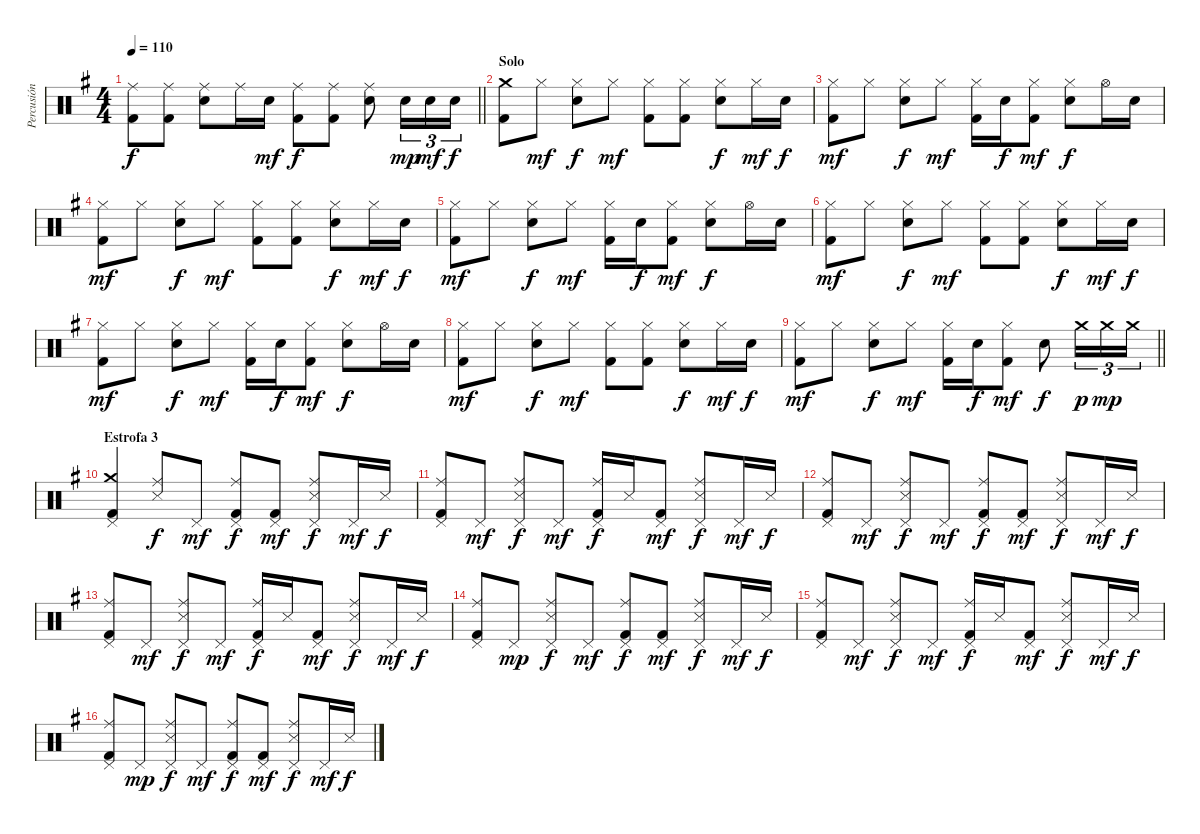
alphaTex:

\track ("Percusión" "Percusión") {instrument percussion}
\staff {score}
\articulation defaults
\ts (4 4)
\tempo 110
\clef neutral
\barLineRight lightlight
\ks g
("Ride (middle)" "Kick (hit) 2").8{dy f} ("Ride (middle)" "Kick (hit) 2").8 ("Ride (middle)" "Snare (hit) 2").8 "Ride (middle)".16 "Snare (hit) 2".16{dy mf} ("Ride (middle)" "Kick (hit) 2").8{dy f} ("Ride (middle)" "Kick (hit) 2").8 ("Ride (middle)" "Snare (hit) 2").8 "Snare (hit) 2".16{tu (3 2) dy mp} "Snare (hit) 2".16{tu (3 2) dy mf} "Snare (hit) 2".16{tu (3 2) dy f} |
\section ("" "Solo")
("Crash medium (hit)" "Kick (hit) 2").8 "Hi-Hat (closed)".8{dy mf} ("Hi-Hat (closed)" "Electric Snare (hit)").8{dy f} "Hi-Hat (closed)".8{dy mf} ("Hi-Hat (closed)" "Kick (hit) 2").8 ("Hi-Hat (closed)" "Kick (hit) 2").8 ("Hi-Hat (closed)" "Electric Snare (hit)").8{dy f} "Hi-Hat (closed)".16{dy mf} "Electric Snare (hit)".16{dy f} |
("Hi-Hat (closed)" "Kick (hit) 2").8{dy mf} "Hi-Hat (closed)".8 ("Hi-Hat (closed)" "Electric Snare (hit)").8{dy f} "Hi-Hat (closed)".8{dy mf} ("Hi-Hat (closed)" "Kick (hit) 2").16 "Electric Snare (hit)".16{dy f} ("Hi-Hat (closed)" "Kick (hit) 2").8{dy mf} ("Hi-Hat (closed)" "Electric Snare (hit)").8{dy f} "Hi-Hat (open)".16 "Electric Snare (hit)".16 |
("Hi-Hat (closed)" "Kick (hit) 2").8{dy mf} "Hi-Hat (closed)".8 ("Hi-Hat (closed)" "Electric Snare (hit)").8{dy f} "Hi-Hat (closed)".8{dy mf} ("Hi-Hat (closed)" "Kick (hit) 2").8 ("Hi-Hat (closed)" "Kick (hit) 2").8 ("Hi-Hat (closed)" "Electric Snare (hit)").8{dy f} "Hi-Hat (closed)".16{dy mf} "Electric Snare (hit)".16{dy f} |
("Hi-Hat (closed)" "Kick (hit) 2").8{dy mf} "Hi-Hat (closed)".8 ("Hi-Hat (closed)" "Electric Snare (hit)").8{dy f} "Hi-Hat (closed)".8{dy mf} ("Hi-Hat (closed)" "Kick (hit) 2").16 "Electric Snare (hit)".16{dy f} ("Hi-Hat (closed)" "Kick (hit) 2").8{dy mf} ("Hi-Hat (closed)" "Electric Snare (hit)").8{dy f} "Hi-Hat (open)".16 "Electric Snare (hit)".16 |
("Hi-Hat (closed)" "Kick (hit) 2").8{dy mf} "Hi-Hat (closed)".8 ("Hi-Hat (closed)" "Electric Snare (hit)").8{dy f} "Hi-Hat (closed)".8{dy mf} ("Hi-Hat (closed)" "Kick (hit) 2").8 ("Hi-Hat (closed)" "Kick (hit) 2").8 ("Hi-Hat (closed)" "Electric Snare (hit)").8{dy f} "Hi-Hat (closed)".16{dy mf} "Electric Snare (hit)".16{dy f} |
("Hi-Hat (closed)" "Kick (hit) 2").8{dy mf} "Hi-Hat (closed)".8 ("Hi-Hat (closed)" "Electric Snare (hit)").8{dy f} "Hi-Hat (closed)".8{dy mf} ("Hi-Hat (closed)" "Kick (hit) 2").16 "Electric Snare (hit)".16{dy f} ("Hi-Hat (closed)" "Kick (hit) 2").8{dy mf} ("Hi-Hat (closed)" "Electric Snare (hit)").8{dy f} "Hi-Hat (open)".16 "Electric Snare (hit)".16 |
("Hi-Hat (closed)" "Kick (hit) 2").8{dy mf} "Hi-Hat (closed)".8 ("Hi-Hat (closed)" "Electric Snare (hit)").8{dy f} "Hi-Hat (closed)".8{dy mf} ("Hi-Hat (closed)" "Kick (hit) 2").8 ("Hi-Hat (closed)" "Kick (hit) 2").8 ("Hi-Hat (closed)" "Electric Snare (hit)").8{dy f} "Hi-Hat (closed)".16{dy mf} "Electric Snare (hit)".16{dy f} |
\barLineRight lightlight
("Hi-Hat (closed)" "Kick (hit) 2").8{dy mf} "Hi-Hat (closed)".8 ("Hi-Hat (closed)" "Electric Snare (hit)").8{dy f} "Hi-Hat (closed)".8{dy mf} ("Hi-Hat (closed)" "Kick (hit) 2").16 "Electric Snare (hit)".16{dy f} ("Hi-Hat (closed)" "Kick (hit) 2").8{dy mf} "Electric Snare (hit)".8{dy f} "Crash medium (hit)".16{tu (3 2) dy p} "Crash medium (hit)".16{tu (3 2) dy mp} "Crash medium (hit)".16{tu (3 2)} |
\section ("" "Estrofa 3")
("Crash medium (hit)" "Pedal Hi-Hat (hit)" "Kick (hit) 2").4 ("Ride (middle)" "Snare (side stick) 3").8{dy f} "Pedal Hi-Hat (hit)".8{dy mf} ("Ride (middle)" "Pedal Hi-Hat (hit)" "Kick (hit) 2").8{dy f} ("Pedal Hi-Hat (hit)" "Kick (hit) 2").8{dy mf} ("Ride (middle)" "Pedal Hi-Hat (hit)" "Snare (side stick) 3").8{dy f} "Pedal Hi-Hat (hit)".16{dy mf} "Snare (side stick) 3".16{dy f} |
("Ride (middle)" "Pedal Hi-Hat (hit)" "Kick (hit) 2").8 "Pedal Hi-Hat (hit)".8{dy mf} ("Ride (middle)" "Pedal Hi-Hat (hit)" "Snare (side stick) 3").8{dy f} "Pedal Hi-Hat (hit)".8{dy mf} ("Ride (middle)" "Pedal Hi-Hat (hit)" "Kick (hit) 2").16{dy f} "Snare (side stick) 3".16 ("Pedal Hi-Hat (hit)" "Kick (hit) 2").8{dy mf} ("Ride (middle)" "Pedal Hi-Hat (hit)" "Snare (side stick) 3").8{dy f} "Pedal Hi-Hat (hit)".16{dy mf} "Snare (side stick) 3".16{dy f} |
("Ride (middle)" "Pedal Hi-Hat (hit)" "Kick (hit) 2").8 "Pedal Hi-Hat (hit)".8{dy mf} ("Ride (middle)" "Pedal Hi-Hat (hit)" "Snare (side stick) 3").8{dy f} "Pedal Hi-Hat (hit)".8{dy mf} ("Ride (middle)" "Pedal Hi-Hat (hit)" "Kick (hit) 2").8{dy f} ("Pedal Hi-Hat (hit)" "Kick (hit) 2").8{dy mf} ("Ride (middle)" "Pedal Hi-Hat (hit)" "Snare (side stick) 3").8{dy f} "Pedal Hi-Hat (hit)".16{dy mf} "Snare (side stick) 3".16{dy f} |
("Ride (middle)" "Pedal Hi-Hat (hit)" "Kick (hit) 2").8 "Pedal Hi-Hat (hit)".8{dy mf} ("Ride (middle)" "Pedal Hi-Hat (hit)" "Snare (side stick) 3").8{dy f} "Pedal Hi-Hat (hit)".8{dy mf} ("Ride (middle)" "Pedal Hi-Hat (hit)" "Kick (hit) 2").16{dy f} "Snare (side stick) 3".16 ("Pedal Hi-Hat (hit)" "Kick (hit) 2").8{dy mf} ("Ride (middle)" "Pedal Hi-Hat (hit)" "Snare (side stick) 3").8{dy f} "Pedal Hi-Hat (hit)".16{dy mf} "Snare (side stick) 3".16{dy f} |
("Ride (middle)" "Pedal Hi-Hat (hit)" "Kick (hit) 2").8 "Pedal Hi-Hat (hit)".8{dy mp} ("Ride (middle)" "Pedal Hi-Hat (hit)" "Snare (side stick) 3").8{dy f} "Pedal Hi-Hat (hit)".8{dy mf} ("Ride (middle)" "Pedal Hi-Hat (hit)" "Kick (hit) 2").8{dy f} ("Pedal Hi-Hat (hit)" "Kick (hit) 2").8{dy mf} ("Ride (middle)" "Pedal Hi-Hat (hit)" "Snare (side stick) 3").8{dy f} "Pedal Hi-Hat (hit)".16{dy mf} "Snare (side stick) 3".16{dy f} |
("Ride (middle)" "Pedal Hi-Hat (hit)" "Kick (hit) 2").8 "Pedal Hi-Hat (hit)".8{dy mf} ("Ride (middle)" "Pedal Hi-Hat (hit)" "Snare (side stick) 3").8{dy f} "Pedal Hi-Hat (hit)".8{dy mf} ("Ride (middle)" "Pedal Hi-Hat (hit)" "Kick (hit) 2").16{dy f} "Snare (side stick) 3".16 ("Pedal Hi-Hat (hit)" "Kick (hit) 2").8{dy mf} ("Ride (middle)" "Pedal Hi-Hat (hit)" "Snare (side stick) 3").8{dy f} "Pedal Hi-Hat (hit)".16{dy mf} "Snare (side stick) 3".16{dy f} |
("Ride (middle)" "Pedal Hi-Hat (hit)" "Kick (hit) 2").8 "Pedal Hi-Hat (hit)".8{dy mp} ("Ride (middle)" "Pedal Hi-Hat (hit)" "Snare (side stick) 3").8{dy f} "Pedal Hi-Hat (hit)".8{dy mf} ("Ride (middle)" "Pedal Hi-Hat (hit)" "Kick (hit) 2").8{dy f} ("Pedal Hi-Hat (hit)" "Kick (hit) 2").8{dy mf} ("Ride (middle)" "Pedal Hi-Hat (hit)" "Snare (side stick) 3").8{dy f} "Pedal Hi-Hat (hit)".16{dy mf} "Snare (side stick) 3".16{dy f}
